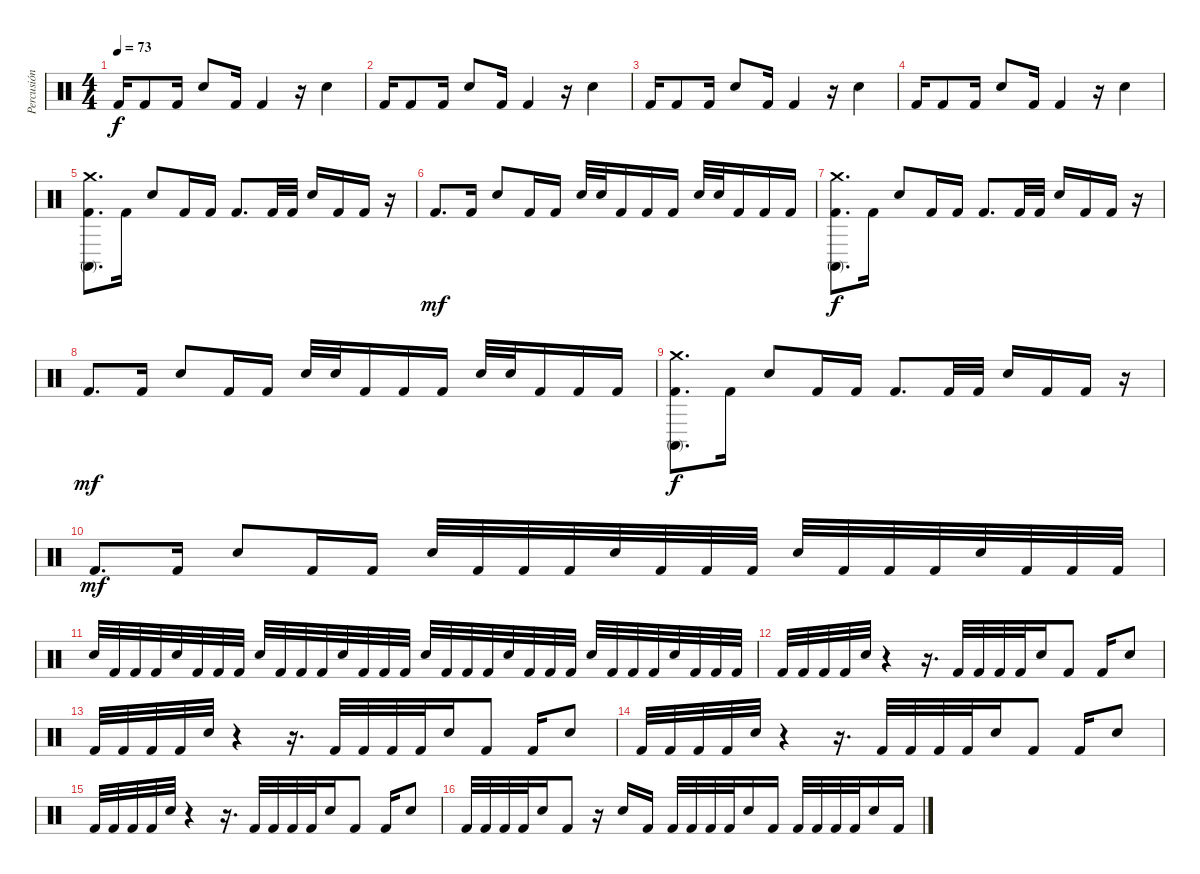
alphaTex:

\track ("Percusión" "Percusión") {instrument percussion}
\staff {score}
\articulation defaults
\ts (4 4)
\tempo 73
\clef neutral
\ks c "Kick (hit) 2".16{dy f} "Kick (hit) 2".8 "Kick (hit) 2".16 "Snare (hit) 2".8 "Kick (hit) 2".16 "Kick (hit) 2".4
r.16 "Snare (hit) 2".4 |
"Kick (hit) 2".16 "Kick (hit) 2".8 "Kick (hit) 2".16 "Snare (hit) 2".8 "Kick (hit) 2".16 "Kick (hit) 2".4 r.16 "Snare (hit) 2".4 |
"Kick (hit) 2".16 "Kick (hit) 2".8 "Kick (hit) 2".16 "Snare (hit) 2".8 "Kick (hit) 2".16 "Kick (hit) 2".4 r.16 "Snare (hit) 2".4 |
"Kick (hit) 2".16 "Kick (hit) 2".8 "Kick (hit) 2".16 "Snare (hit) 2".8 "Kick (hit) 2".16 "Kick (hit) 2".4 r.16 "Snare (hit) 2".4 |
("Kick (hit) 2" "Conga high (mute)" "Crash medium (hit)").8{d} "Kick (hit) 2".16 "Snare (hit) 2".8 "Kick (hit) 2".16 "Kick (hit) 2".16 "Kick (hit) 2".8{d} "Kick (hit) 2".32 "Kick (hit) 2".32 "Snare (hit) 2".16 "Kick (hit) 2".16 "Kick (hit) 2".16 r.16 |
"Kick (hit) 2".8{d dy mf} "Kick (hit) 2".16 "Snare (hit) 2".8 "Kick (hit) 2".16 "Kick (hit) 2".16 "Snare (hit) 2".32 "Snare (hit) 2".32 "Kick (hit) 2".16 "Kick (hit) 2".16 "Kick (hit) 2".16 "Snare (hit) 2".32 "Snare (hit) 2".32 "Kick (hit) 2".16 "Kick (hit) 2".16 "Kick (hit) 2".16 |
("Kick (hit) 2" "Conga high (mute)" "Crash medium (hit)").8{d dy f} "Kick (hit) 2".16 "Snare (hit) 2".8 "Kick (hit) 2".16 "Kick (hit) 2".16 "Kick (hit) 2".8{d} "Kick (hit) 2".32 "Kick (hit) 2".32 "Snare (hit) 2".16 "Kick (hit) 2".16 "Kick (hit) 2".16 r.16 |
"Kick (hit) 2".8{d dy mf} "Kick (hit) 2".16 "Snare (hit) 2".8 "Kick (hit) 2".16 "Kick (hit) 2".16 "Snare (hit) 2".32 "Snare (hit) 2".32 "Kick (hit) 2".16 "Kick (hit) 2".16 "Kick (hit) 2".16 "Snare (hit) 2".32 "Snare (hit) 2".32 "Kick (hit) 2".16 "Kick (hit) 2".16 "Kick (hit) 2".16 |
("Kick (hit) 2" "Conga high (mute)" "Crash medium (hit)").8{d dy f} "Kick (hit) 2".16 "Snare (hit) 2".8 "Kick (hit) 2".16 "Kick (hit) 2".16 "Kick (hit) 2".8{d} "Kick (hit) 2".32 "Kick (hit) 2".32 "Snare (hit) 2".16 "Kick (hit) 2".16 "Kick (hit) 2".16 r.16 |
"Kick (hit) 2".8{d dy mf} "Kick (hit) 2".16 "Snare (hit) 2".8 "Kick (hit) 2".16 "Kick (hit) 2".16 "Snare (hit) 2".32 "Kick (hit) 2".32 "Kick (hit) 2".32 "Kick (hit) 2".32 "Snare (hit) 2".32 "Kick (hit) 2".32 "Kick (hit) 2".32 "Kick (hit) 2".32 "Snare (hit) 2".32 "Kick (hit) 2".32 "Kick (hit) 2".32 "Kick (hit) 2".32 "Snare (hit) 2".32 "Kick (hit) 2".32 "Kick (hit) 2".32 "Kick (hit) 2".32 |
"Snare (hit) 2".32 "Kick (hit) 2".32 "Kick (hit) 2".32 "Kick (hit) 2".32 "Snare (hit) 2".32 "Kick (hit) 2".32 "Kick (hit) 2".32 "Kick (hit) 2".32 "Snare (hit) 2".32 "Kick (hit) 2".32 "Kick (hit) 2".32 "Kick (hit) 2".32 "Snare (hit) 2".32 "Kick (hit) 2".32 "Kick (hit) 2".32 "Kick (hit) 2".32 "Snare (hit) 2".32 "Kick (hit) 2".32 "Kick (hit) 2".32 "Kick (hit) 2".32 "Snare (hit) 2".32 "Kick (hit) 2".32 "Kick (hit) 2".32 "Kick (hit) 2".32 "Snare (hit) 2".32 "Kick (hit) 2".32 "Kick (hit) 2".32 "Kick (hit) 2".32 "Snare (hit) 2".32 "Kick (hit) 2".32 "Kick (hit) 2".32 "Kick (hit) 2".32 |
"Kick (hit) 2".32 "Kick (hit) 2".32 "Kick (hit) 2".32 "Kick (hit) 2".32 "Snare (hit) 2".32 r.4 r.16{d} "Kick (hit) 2".32 "Kick (hit) 2".32 "Kick (hit) 2".32 "Kick (hit) 2".32 "Snare (hit) 2".16 "Kick (hit) 2".8 "Kick (hit) 2".16 "Snare (hit) 2".8 |
"Kick (hit) 2".32 "Kick (hit) 2".32 "Kick (hit) 2".32 "Kick (hit) 2".32 "Snare (hit) 2".32 r.4 r.16{d} "Kick (hit) 2".32 "Kick (hit) 2".32 "Kick (hit) 2".32 "Kick (hit) 2".32 "Snare (hit) 2".16 "Kick (hit) 2".8 "Kick (hit) 2".16 "Snare (hit) 2".8 |
"Kick (hit) 2".32 "Kick (hit) 2".32 "Kick (hit) 2".32 "Kick (hit) 2".32 "Snare (hit) 2".32 r.4 r.16{d} "Kick (hit) 2".32 "Kick (hit) 2".32 "Kick (hit) 2".32 "Kick (hit) 2".32 "Snare (hit) 2".16 "Kick (hit) 2".8 "Kick (hit) 2".16 "Snare (hit) 2".8 |
"Kick (hit) 2".32 "Kick (hit) 2".32 "Kick (hit) 2".32 "Kick (hit) 2".32 "Snare (hit) 2".32 r.4 r.16{d} "Kick (hit) 2".32 "Kick (hit) 2".32 "Kick (hit) 2".32 "Kick (hit) 2".32 "Snare (hit) 2".16 "Kick (hit) 2".8 "Kick (hit) 2".16 "Snare (hit) 2".8 |
"Kick (hit) 2".32 "Kick (hit) 2".32 "Kick (hit) 2".32 "Kick (hit) 2".32 "Snare (hit) 2".16 "Kick (hit) 2".8 r.16 "Snare (hit) 2".16 "Kick (hit) 2".16 "Kick (hit) 2".32 "Kick (hit) 2".32 "Kick (hit) 2".32 "Kick (hit) 2".32 "Snare (hit) 2".16 "Kick (hit) 2".16 "Kick (hit) 2".32 "Kick (hit) 2".32 "Kick (hit) 2".32 "Kick (hit) 2".32 "Snare (hit) 2".16 "Kick (hit) 2".16
